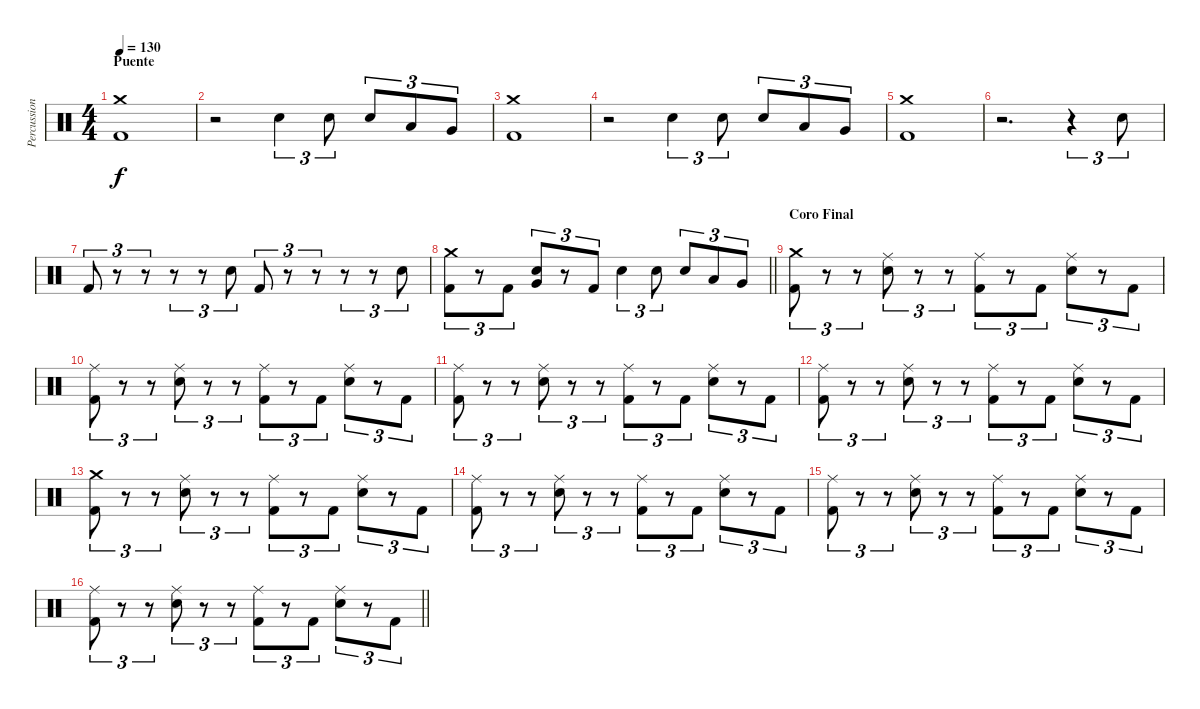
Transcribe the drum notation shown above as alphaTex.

\track ("Percussion" "Percussion") {instrument percussion}
\staff {score}
\articulation defaults
\ts (4 4)
\section ("" "Puente")
\tempo 130
\clef neutral
\ks c
("Crash medium (hit)" "Kick (hit) 2").1{dy f} |
r.2 "Snare (hit) 2".4{tu (3 2)} "Snare (hit) 2".8{tu (3 2)} "Snare (hit) 2".8{tu (3 2)} "Low Tom (hit)".8{tu (3 2)} "Very Low Tom (hit)".8{tu (3 2)} |
("Crash medium (hit)" "Kick (hit) 2").1 |
r.2 "Snare (hit) 2".4{tu (3 2)} "Snare (hit) 2".8{tu (3 2)} "Snare (hit) 2".8{tu (3 2)} "Low Tom (hit)".8{tu (3 2)} "Very Low Tom (hit)".8{tu (3 2)} |
("Crash medium (hit)" "Kick (hit) 2").1 |
r.2{d} r.4{tu (3 2)} "Snare (hit) 2".8{tu (3 2)} |
"Kick (hit) 2".8{tu (3 2)} r.8{tu (3 2)} r.8{tu (3 2)} r.8{tu (3 2)} r.8{tu (3 2)} "Snare (hit) 2".8{tu (3 2)} "Kick (hit) 2".8{tu (3 2)} r.8{tu (3 2)} r.8{tu (3 2)} r.8{tu (3 2)} r.8{tu (3 2)} "Snare (hit) 2".8{tu (3 2)} |
\barLineRight lightlight
("Crash medium (hit)" "Kick (hit) 2").8{tu (3 2)} r.8{tu (3 2)} "Kick (hit) 2".8{tu (3 2)} ("Very Low Tom (hit)" "Snare (hit) 2").8{tu (3 2)} r.8{tu (3 2)} "Kick (hit) 2".8{tu (3 2)} "Snare (hit) 2".4{tu (3 2)} "Snare (hit) 2".8{tu (3 2)} "Snare (hit) 2".8{tu (3 2)} "Low Tom (hit)".8{tu (3 2)} "Very Low Tom (hit)".8{tu (3 2)} |
\section ("" "Coro Final")
("Crash medium (hit)" "Kick (hit) 2").8{tu (3 2)} r.8{tu (3 2)} r.8{tu (3 2)} ("Ride (middle)" "Snare (hit) 2").8{tu (3 2)} r.8{tu (3 2)} r.8{tu (3 2)} ("Ride (middle)" "Kick (hit) 2").8{tu (3 2)} r.8{tu (3 2)} "Kick (hit) 2".8{tu (3 2)} ("Ride (middle)" "Snare (hit) 2").8{tu (3 2)} r.8{tu (3 2)} "Kick (hit) 2".8{tu (3 2)} |
("Ride (middle)" "Kick (hit) 2").8{tu (3 2)} r.8{tu (3 2)} r.8{tu (3 2)} ("Ride (middle)" "Snare (hit) 2").8{tu (3 2)} r.8{tu (3 2)} r.8{tu (3 2)} ("Ride (middle)" "Kick (hit) 2").8{tu (3 2)} r.8{tu (3 2)} "Kick (hit) 2".8{tu (3 2)} ("Ride (middle)" "Snare (hit) 2").8{tu (3 2)} r.8{tu (3 2)} "Kick (hit) 2".8{tu (3 2)} |
("Ride (middle)" "Kick (hit) 2").8{tu (3 2)} r.8{tu (3 2)} r.8{tu (3 2)} ("Ride (middle)" "Snare (hit) 2").8{tu (3 2)} r.8{tu (3 2)} r.8{tu (3 2)} ("Ride (middle)" "Kick (hit) 2").8{tu (3 2)} r.8{tu (3 2)} "Kick (hit) 2".8{tu (3 2)} ("Ride (middle)" "Snare (hit) 2").8{tu (3 2)} r.8{tu (3 2)} "Kick (hit) 2".8{tu (3 2)} |
("Ride (middle)" "Kick (hit) 2").8{tu (3 2)} r.8{tu (3 2)} r.8{tu (3 2)} ("Ride (middle)" "Snare (hit) 2").8{tu (3 2)} r.8{tu (3 2)} r.8{tu (3 2)} ("Ride (middle)" "Kick (hit) 2").8{tu (3 2)} r.8{tu (3 2)} "Kick (hit) 2".8{tu (3 2)} ("Ride (middle)" "Snare (hit) 2").8{tu (3 2)} r.8{tu (3 2)} "Kick (hit) 2".8{tu (3 2)} |
("Crash medium (hit)" "Kick (hit) 2").8{tu (3 2)} r.8{tu (3 2)} r.8{tu (3 2)} ("Ride (middle)" "Snare (hit) 2").8{tu (3 2)} r.8{tu (3 2)} r.8{tu (3 2)} ("Ride (middle)" "Kick (hit) 2").8{tu (3 2)} r.8{tu (3 2)} "Kick (hit) 2".8{tu (3 2)} ("Ride (middle)" "Snare (hit) 2").8{tu (3 2)} r.8{tu (3 2)} "Kick (hit) 2".8{tu (3 2)} |
("Ride (middle)" "Kick (hit) 2").8{tu (3 2)} r.8{tu (3 2)} r.8{tu (3 2)} ("Ride (middle)" "Snare (hit) 2").8{tu (3 2)} r.8{tu (3 2)} r.8{tu (3 2)} ("Ride (middle)" "Kick (hit) 2").8{tu (3 2)} r.8{tu (3 2)} "Kick (hit) 2".8{tu (3 2)} ("Ride (middle)" "Snare (hit) 2").8{tu (3 2)} r.8{tu (3 2)} "Kick (hit) 2".8{tu (3 2)} |
("Ride (middle)" "Kick (hit) 2").8{tu (3 2)} r.8{tu (3 2)} r.8{tu (3 2)} ("Ride (middle)" "Snare (hit) 2").8{tu (3 2)} r.8{tu (3 2)} r.8{tu (3 2)} ("Ride (middle)" "Kick (hit) 2").8{tu (3 2)} r.8{tu (3 2)} "Kick (hit) 2".8{tu (3 2)} ("Ride (middle)" "Snare (hit) 2").8{tu (3 2)} r.8{tu (3 2)} "Kick (hit) 2".8{tu (3 2)} |
\barLineRight lightlight
("Ride (middle)" "Kick (hit) 2").8{tu (3 2)} r.8{tu (3 2)} r.8{tu (3 2)} ("Ride (middle)" "Snare (hit) 2").8{tu (3 2)} r.8{tu (3 2)} r.8{tu (3 2)} ("Ride (middle)" "Kick (hit) 2").8{tu (3 2)} r.8{tu (3 2)} "Kick (hit) 2".8{tu (3 2)} ("Ride (middle)" "Snare (hit) 2").8{tu (3 2)} r.8{tu (3 2)} "Kick (hit) 2".8{tu (3 2)}
